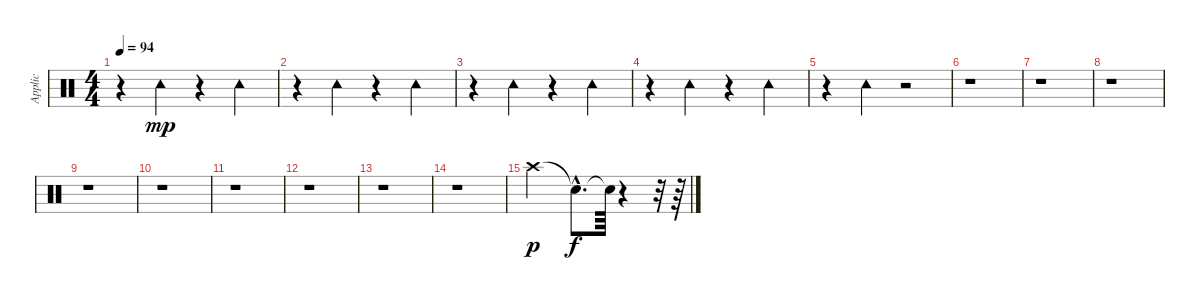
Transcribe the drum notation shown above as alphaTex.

\track ("Applic" "Applic") {instrument percussion}
\staff {score}
\articulation defaults
\ts (4 4)
\tempo 94
\clef neutral
\ks c
r.4{dy mp} "Tambourine (hit)".4 r.4 "Tambourine (hit)".4 |
r.4 "Tambourine (hit)".4 r.4 "Tambourine (hit)".4 |
r.4 "Tambourine (hit)".4 r.4 "Tambourine (hit)".4 |
r.4 "Tambourine (hit)".4 r.4 "Tambourine (hit)".4 |
r.4 "Tambourine (hit)".4 r.2 |
r.1 |
r.1 |
r.1 |
r.1 |
r.1 |
r.1 |
r.1 |
r.1 |
r.1 |
"Crash high (hit)".2{dy p} "Snare (hit)"{hac t}.8{d dy f} "Snare (hit)"{t}.64 r.4 r.32 r.64
